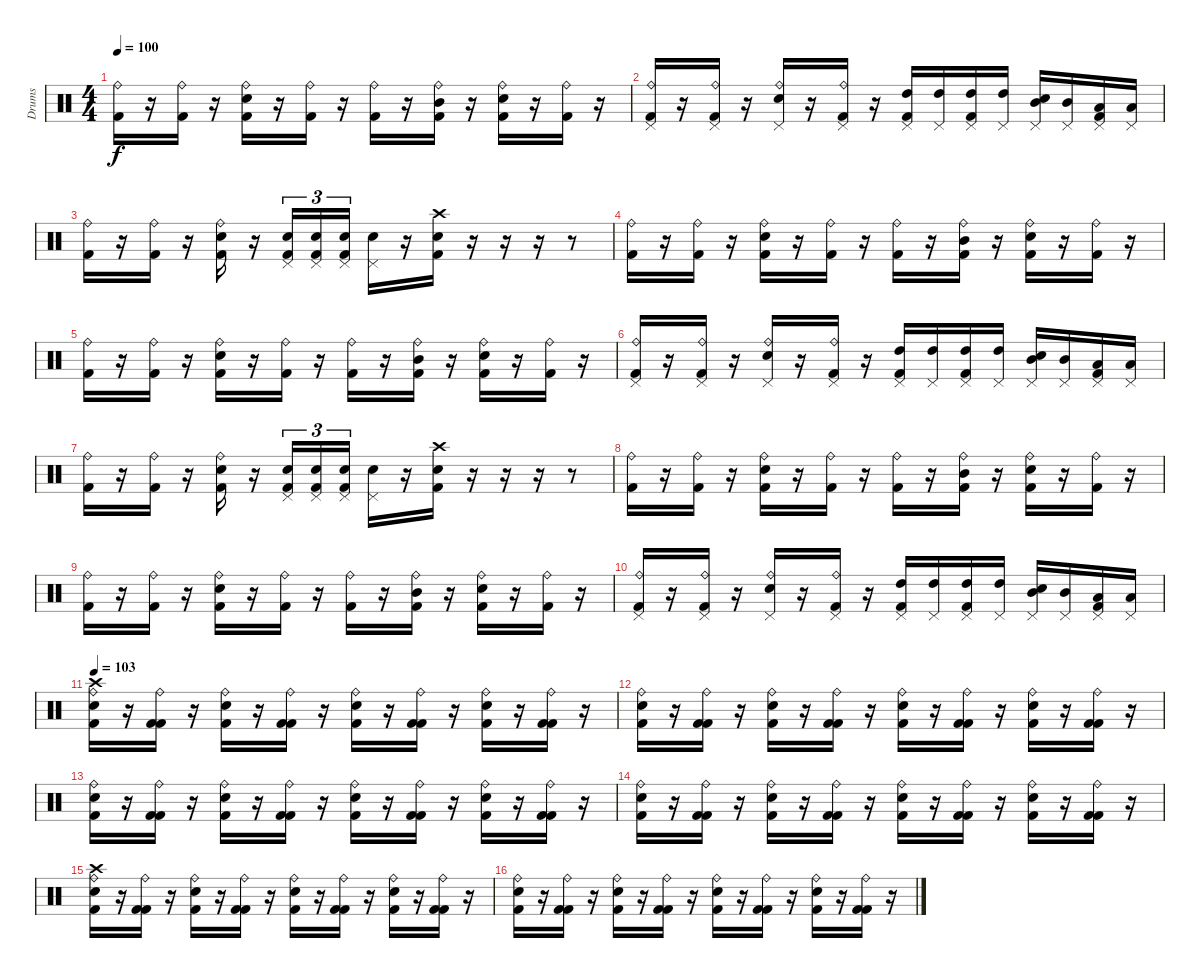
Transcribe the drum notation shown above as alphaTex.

\track ("Drums" "Drums") {instrument percussion}
\staff {score}
\articulation defaults
\ts (4 4)
\tempo 100
\clef neutral
\ks c
("Ride (bell)" "Kick (hit) 2").16{dy f} r.16 ("Ride (bell)" "Kick (hit) 2").16 r.16 ("Ride (bell)" "Snare (hit) 2" "Kick (hit) 2").16 r.16 ("Ride (bell)" "Kick (hit) 2").16 r.16 ("Ride (bell)" "Kick (hit) 2").16 r.16 ("Ride (bell)" "Mid Tom (hit)" "Kick (hit) 2").16 r.16 ("Ride (bell)" "Snare (hit) 2" "Kick (hit) 2").16 r.16 ("Ride (bell)" "Kick (hit) 2").16 r.16 |
("Ride (bell)" "Pedal Hi-Hat (hit)" "Kick (hit) 2").16 r.16 ("Ride (bell)" "Pedal Hi-Hat (hit)" "Kick (hit) 2").16 r.16 ("Ride (bell)" "Pedal Hi-Hat (hit)" "Snare (hit) 2").16 r.16 ("Ride (bell)" "Pedal Hi-Hat (hit)" "Kick (hit) 2").16 r.16 ("Pedal Hi-Hat (hit)" "High Tom (hit)" "Kick (hit) 2").16 ("Pedal Hi-Hat (hit)" "High Tom (hit)").16 ("Pedal Hi-Hat (hit)" "High Tom (hit)" "Kick (hit) 2").16 ("Pedal Hi-Hat (hit)" "High Tom (hit)").16 ("Pedal Hi-Hat (hit)" "Mid Tom (hit)" "Snare (hit) 2").16 ("Pedal Hi-Hat (hit)" "Mid Tom (hit)").16 ("Pedal Hi-Hat (hit)" "Low Tom (hit)" "Kick (hit) 2").16 ("Pedal Hi-Hat (hit)" "Low Tom (hit)").16 |
("Ride (bell)" "Kick (hit) 2").16 r.16 ("Ride (bell)" "Kick (hit) 2").16 r.16 ("Ride (bell)" "Snare (hit) 2" "Kick (hit) 2").16 r.16 ("Pedal Hi-Hat (hit)" "Kick (hit) 2" "Snare (hit) 2").16{tu (3 2)} ("Pedal Hi-Hat (hit)" "Kick (hit) 2" "Snare (hit) 2").16{tu (3 2)} ("Pedal Hi-Hat (hit)" "Kick (hit) 2" "Snare (hit) 2").16{tu (3 2)} ("Pedal Hi-Hat (hit)" "Snare (hit) 2").16 r.16 ("Crash high (hit)" "Snare (hit) 2" "Kick (hit) 2").16 r.16 r.16 r.16 r.8 |
("Ride (bell)" "Kick (hit) 2").16 r.16 ("Ride (bell)" "Kick (hit) 2").16 r.16 ("Ride (bell)" "Snare (hit) 2" "Kick (hit) 2").16 r.16 ("Ride (bell)" "Kick (hit) 2").16 r.16 ("Ride (bell)" "Kick (hit) 2").16 r.16 ("Ride (bell)" "Mid Tom (hit)" "Kick (hit) 2").16 r.16 ("Ride (bell)" "Snare (hit) 2" "Kick (hit) 2").16 r.16 ("Ride (bell)" "Kick (hit) 2").16 r.16 |
("Ride (bell)" "Kick (hit) 2").16 r.16 ("Ride (bell)" "Kick (hit) 2").16 r.16 ("Ride (bell)" "Snare (hit) 2" "Kick (hit) 2").16 r.16 ("Ride (bell)" "Kick (hit) 2").16 r.16 ("Ride (bell)" "Kick (hit) 2").16 r.16 ("Ride (bell)" "Mid Tom (hit)" "Kick (hit) 2").16 r.16 ("Ride (bell)" "Snare (hit) 2" "Kick (hit) 2").16 r.16 ("Ride (bell)" "Kick (hit) 2").16 r.16 |
("Ride (bell)" "Pedal Hi-Hat (hit)" "Kick (hit) 2").16 r.16 ("Ride (bell)" "Pedal Hi-Hat (hit)" "Kick (hit) 2").16 r.16 ("Ride (bell)" "Pedal Hi-Hat (hit)" "Snare (hit) 2").16 r.16 ("Ride (bell)" "Pedal Hi-Hat (hit)" "Kick (hit) 2").16 r.16 ("Pedal Hi-Hat (hit)" "High Tom (hit)" "Kick (hit) 2").16 ("Pedal Hi-Hat (hit)" "High Tom (hit)").16 ("Pedal Hi-Hat (hit)" "High Tom (hit)" "Kick (hit) 2").16 ("Pedal Hi-Hat (hit)" "High Tom (hit)").16 ("Pedal Hi-Hat (hit)" "Mid Tom (hit)" "Snare (hit) 2").16 ("Pedal Hi-Hat (hit)" "Mid Tom (hit)").16 ("Pedal Hi-Hat (hit)" "Low Tom (hit)" "Kick (hit) 2").16 ("Pedal Hi-Hat (hit)" "Low Tom (hit)").16 |
("Ride (bell)" "Kick (hit) 2").16 r.16 ("Ride (bell)" "Kick (hit) 2").16 r.16 ("Ride (bell)" "Snare (hit) 2" "Kick (hit) 2").16 r.16 ("Pedal Hi-Hat (hit)" "Kick (hit) 2" "Snare (hit) 2").16{tu (3 2)} ("Pedal Hi-Hat (hit)" "Kick (hit) 2" "Snare (hit) 2").16{tu (3 2)} ("Pedal Hi-Hat (hit)" "Kick (hit) 2" "Snare (hit) 2").16{tu (3 2)} ("Pedal Hi-Hat (hit)" "Snare (hit) 2").16 r.16 ("Crash high (hit)" "Snare (hit) 2" "Kick (hit) 2").16 r.16 r.16 r.16 r.8 |
("Ride (bell)" "Kick (hit) 2").16 r.16 ("Ride (bell)" "Kick (hit) 2").16 r.16 ("Ride (bell)" "Snare (hit) 2" "Kick (hit) 2").16 r.16 ("Ride (bell)" "Kick (hit) 2").16 r.16 ("Ride (bell)" "Kick (hit) 2").16 r.16 ("Ride (bell)" "Mid Tom (hit)" "Kick (hit) 2").16 r.16 ("Ride (bell)" "Snare (hit) 2" "Kick (hit) 2").16 r.16 ("Ride (bell)" "Kick (hit) 2").16 r.16 |
("Ride (bell)" "Kick (hit) 2").16 r.16 ("Ride (bell)" "Kick (hit) 2").16 r.16 ("Ride (bell)" "Snare (hit) 2" "Kick (hit) 2").16 r.16 ("Ride (bell)" "Kick (hit) 2").16 r.16 ("Ride (bell)" "Kick (hit) 2").16 r.16 ("Ride (bell)" "Mid Tom (hit)" "Kick (hit) 2").16 r.16 ("Ride (bell)" "Snare (hit) 2" "Kick (hit) 2").16 r.16 ("Ride (bell)" "Kick (hit) 2").16 r.16 |
("Ride (bell)" "Pedal Hi-Hat (hit)" "Kick (hit) 2").16 r.16 ("Ride (bell)" "Pedal Hi-Hat (hit)" "Kick (hit) 2").16 r.16 ("Ride (bell)" "Pedal Hi-Hat (hit)" "Snare (hit) 2").16 r.16 ("Ride (bell)" "Pedal Hi-Hat (hit)" "Kick (hit) 2").16 r.16 ("Pedal Hi-Hat (hit)" "High Tom (hit)" "Kick (hit) 2").16 ("Pedal Hi-Hat (hit)" "High Tom (hit)").16 ("Pedal Hi-Hat (hit)" "High Tom (hit)" "Kick (hit) 2").16 ("Pedal Hi-Hat (hit)" "High Tom (hit)").16 ("Pedal Hi-Hat (hit)" "Mid Tom (hit)" "Snare (hit) 2").16 ("Pedal Hi-Hat (hit)" "Mid Tom (hit)").16 ("Pedal Hi-Hat (hit)" "Low Tom (hit)" "Kick (hit) 2").16 ("Pedal Hi-Hat (hit)" "Low Tom (hit)").16 |
\tempo 103
("Crash high (hit)" "Ride (bell)" "Snare (hit) 2" "Kick (hit) 2").16 r.16 ("Ride (bell)" "Kick (hit) 2" "Kick (hit) 2").16 r.16 ("Ride (bell)" "Snare (hit) 2" "Kick (hit) 2").16 r.16 ("Ride (bell)" "Kick (hit) 2" "Kick (hit) 2").16 r.16 ("Ride (bell)" "Snare (hit) 2" "Kick (hit) 2").16 r.16 ("Ride (bell)" "Kick (hit) 2" "Kick (hit) 2").16 r.16 ("Ride (bell)" "Snare (hit) 2" "Kick (hit) 2").16 r.16 ("Ride (bell)" "Kick (hit) 2" "Kick (hit) 2").16 r.16 |
("Ride (bell)" "Snare (hit) 2" "Kick (hit) 2").16 r.16 ("Ride (bell)" "Kick (hit) 2" "Kick (hit) 2").16 r.16 ("Ride (bell)" "Snare (hit) 2" "Kick (hit) 2").16 r.16 ("Ride (bell)" "Kick (hit) 2" "Kick (hit) 2").16 r.16 ("Ride (bell)" "Snare (hit) 2" "Kick (hit) 2").16 r.16 ("Ride (bell)" "Kick (hit) 2" "Kick (hit) 2").16 r.16 ("Ride (bell)" "Snare (hit) 2" "Kick (hit) 2").16 r.16 ("Ride (bell)" "Kick (hit) 2" "Kick (hit) 2").16 r.16 |
("Ride (bell)" "Snare (hit) 2" "Kick (hit) 2").16 r.16 ("Ride (bell)" "Kick (hit) 2" "Kick (hit) 2").16 r.16 ("Ride (bell)" "Snare (hit) 2" "Kick (hit) 2").16 r.16 ("Ride (bell)" "Kick (hit) 2" "Kick (hit) 2").16 r.16 ("Ride (bell)" "Snare (hit) 2" "Kick (hit) 2").16 r.16 ("Ride (bell)" "Kick (hit) 2" "Kick (hit) 2").16 r.16 ("Ride (bell)" "Snare (hit) 2" "Kick (hit) 2").16 r.16 ("Ride (bell)" "Kick (hit) 2" "Kick (hit) 2").16 r.16 |
("Ride (bell)" "Snare (hit) 2" "Kick (hit) 2").16 r.16 ("Ride (bell)" "Kick (hit) 2" "Kick (hit) 2").16 r.16 ("Ride (bell)" "Snare (hit) 2" "Kick (hit) 2").16 r.16 ("Ride (bell)" "Kick (hit) 2" "Kick (hit) 2").16 r.16 ("Ride (bell)" "Snare (hit) 2" "Kick (hit) 2").16 r.16 ("Ride (bell)" "Kick (hit) 2" "Kick (hit) 2").16 r.16 ("Ride (bell)" "Snare (hit) 2" "Kick (hit) 2").16 r.16 ("Ride (bell)" "Kick (hit) 2" "Kick (hit) 2").16 r.16 |
("Crash high (hit)" "Ride (bell)" "Snare (hit) 2" "Kick (hit) 2").16 r.16 ("Ride (bell)" "Kick (hit) 2" "Kick (hit) 2").16 r.16 ("Ride (bell)" "Snare (hit) 2" "Kick (hit) 2").16 r.16 ("Ride (bell)" "Kick (hit) 2" "Kick (hit) 2").16 r.16 ("Ride (bell)" "Snare (hit) 2" "Kick (hit) 2").16 r.16 ("Ride (bell)" "Kick (hit) 2" "Kick (hit) 2").16 r.16 ("Ride (bell)" "Snare (hit) 2" "Kick (hit) 2").16 r.16 ("Ride (bell)" "Kick (hit) 2" "Kick (hit) 2").16 r.16 |
("Ride (bell)" "Snare (hit) 2" "Kick (hit) 2").16 r.16 ("Ride (bell)" "Kick (hit) 2" "Kick (hit) 2").16 r.16 ("Ride (bell)" "Snare (hit) 2" "Kick (hit) 2").16 r.16 ("Ride (bell)" "Kick (hit) 2" "Kick (hit) 2").16 r.16 ("Ride (bell)" "Snare (hit) 2" "Kick (hit) 2").16 r.16 ("Ride (bell)" "Kick (hit) 2" "Kick (hit) 2").16 r.16 ("Ride (bell)" "Snare (hit) 2" "Kick (hit) 2").16 r.16 ("Ride (bell)" "Kick (hit) 2" "Kick (hit) 2").16 r.16
